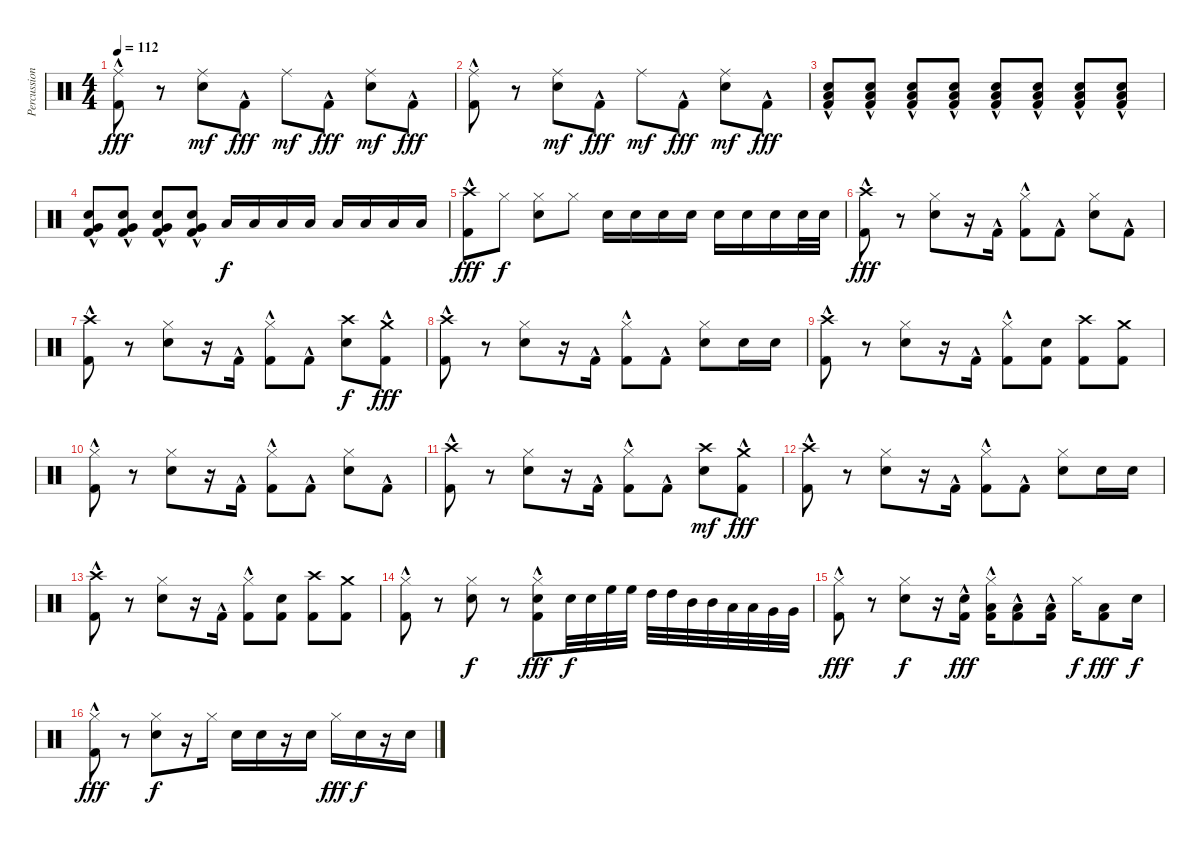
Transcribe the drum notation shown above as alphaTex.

\track ("Percussions" "Percussion") {instrument percussion}
\staff {score}
\articulation defaults
\ts (4 4)
\tempo 112
\clef neutral
\ks c
("Ride (middle)" "Kick (hit) 2"{hac}).8{dy fff} r.8 ("Ride (middle)" "Snare (hit) 2").8{dy mf} "Kick (hit) 2"{hac}.8{dy fff} "Ride (middle)".8{dy mf} "Kick (hit) 2"{hac}.8{dy fff} ("Ride (middle)" "Snare (hit) 2").8{dy mf} "Kick (hit) 2"{hac}.8{dy fff} |
("Ride (middle)" "Kick (hit) 2"{hac}).8 r.8 ("Ride (middle)" "Snare (hit) 2").8{dy mf} "Kick (hit) 2"{hac}.8{dy fff} "Ride (middle)".8{dy mf} "Kick (hit) 2"{hac}.8{dy fff} ("Ride (middle)" "Snare (hit) 2").8{dy mf} "Kick (hit) 2"{hac}.8{dy fff} |
("Snare (hit) 2" "Low Floor Tom (hit)" "Kick (hit) 2"{hac}).8 ("Snare (hit) 2" "Low Floor Tom (hit)" "Kick (hit) 2"{hac}).8 ("Snare (hit) 2" "Low Floor Tom (hit)" "Kick (hit) 2"{hac}).8 ("Snare (hit) 2" "Low Floor Tom (hit)" "Kick (hit) 2"{hac}).8 ("Snare (hit) 2" "Low Floor Tom (hit)" "Kick (hit) 2"{hac}).8 ("Snare (hit) 2" "Low Floor Tom (hit)" "Kick (hit) 2"{hac}).8 ("Snare (hit) 2" "Low Floor Tom (hit)" "Kick (hit) 2"{hac}).8 ("Snare (hit) 2" "Low Floor Tom (hit)" "Kick (hit) 2"{hac}).8 |
("Snare (hit) 2" "Very Low Tom (hit)" "Kick (hit) 2"{hac}).8 ("Snare (hit) 2" "Very Low Tom (hit)" "Kick (hit) 2"{hac}).8 ("Snare (hit) 2" "Very Low Tom (hit)" "Kick (hit) 2"{hac}).8 ("Snare (hit) 2" "Very Low Tom (hit)" "Kick (hit) 2"{hac}).8 "Low Floor Tom (hit)".16{dy f} "Low Floor Tom (hit)".16 "Low Floor Tom (hit)".16 "Low Floor Tom (hit)".16 "Low Floor Tom (hit)".16 "Low Floor Tom (hit)".16 "Low Floor Tom (hit)".16 "Low Floor Tom (hit)".16 |
("Crash high (hit)" "Kick (hit) 2"{hac}).8{dy fff} "Hi-Hat (closed)".8{dy f} ("Hi-Hat (closed)" "Snare (hit) 2").8 "Hi-Hat (closed)".8 "Snare (hit) 2".16 "Snare (hit) 2".16 "Snare (hit) 2".16 "Snare (hit) 2".16 "Snare (hit) 2".16 "Snare (hit) 2".16 "Snare (hit) 2".16 "Snare (hit) 2".32 "Snare (hit) 2".32 |
("Crash high (hit)" "Kick (hit) 2"{hac}).8{dy fff} r.8 ("Hi-Hat (closed)" "Snare (hit) 2").8 r.16 "Kick (hit) 2"{hac}.16 ("Hi-Hat (closed)" "Kick (hit) 2"{hac}).8 "Kick (hit) 2"{hac}.8 ("Hi-Hat (closed)" "Snare (hit) 2").8 "Kick (hit) 2"{hac}.8 |
("Crash high (hit)" "Kick (hit) 2"{hac}).8 r.8 ("Hi-Hat (closed)" "Snare (hit) 2").8 r.16 "Kick (hit) 2"{hac}.16 ("Hi-Hat (closed)" "Kick (hit) 2"{hac}).8 "Kick (hit) 2"{hac}.8 ("Crash high (hit)" "Snare (hit) 2").8{dy f} ("Crash medium (hit)" "Kick (hit) 2"{hac}).8{dy fff} |
("Crash high (hit)" "Kick (hit) 2"{hac}).8 r.8 ("Hi-Hat (closed)" "Snare (hit) 2").8 r.16 "Kick (hit) 2"{hac}.16 ("Hi-Hat (closed)" "Kick (hit) 2"{hac}).8 "Kick (hit) 2"{hac}.8 ("Hi-Hat (closed)" "Snare (hit) 2").8 "Snare (hit) 2".16 "Snare (hit) 2".16 |
("Crash high (hit)" "Kick (hit) 2"{hac}).8 r.8 ("Hi-Hat (closed)" "Snare (hit) 2").8 r.16 "Kick (hit) 2"{hac}.16 ("Hi-Hat (closed)" "Kick (hit) 2"{hac}).8 ("Snare (hit) 2" "Kick (hit) 2").8 ("Crash high (hit)" "Kick (hit) 2").8 ("Crash medium (hit)" "Kick (hit) 2").8 |
("Hi-Hat (closed)" "Kick (hit) 2"{hac}).8 r.8 ("Hi-Hat (closed)" "Snare (hit) 2").8 r.16 "Kick (hit) 2"{hac}.16 ("Hi-Hat (closed)" "Kick (hit) 2"{hac}).8 "Kick (hit) 2"{hac}.8 ("Hi-Hat (closed)" "Snare (hit) 2").8 "Kick (hit) 2"{hac}.8 |
("Crash high (hit)" "Kick (hit) 2"{hac}).8 r.8 ("Hi-Hat (closed)" "Snare (hit) 2").8 r.16 "Kick (hit) 2"{hac}.16 ("Hi-Hat (closed)" "Kick (hit) 2"{hac}).8 "Kick (hit) 2"{hac}.8 ("Crash high (hit)" "Snare (hit) 2").8{dy mf} ("Crash medium (hit)" "Kick (hit) 2"{hac}).8{dy fff} |
("Crash high (hit)" "Kick (hit) 2"{hac}).8 r.8 ("Hi-Hat (closed)" "Snare (hit) 2").8 r.16 "Kick (hit) 2"{hac}.16 ("Hi-Hat (closed)" "Kick (hit) 2"{hac}).8 "Kick (hit) 2"{hac}.8 ("Hi-Hat (closed)" "Snare (hit) 2").8 "Snare (hit) 2".16 "Snare (hit) 2".16 |
("Crash high (hit)" "Kick (hit) 2"{hac}).8 r.8 ("Hi-Hat (closed)" "Snare (hit) 2").8 r.16 "Kick (hit) 2"{hac}.16 ("Hi-Hat (closed)" "Kick (hit) 2"{hac}).8 ("Snare (hit) 2" "Kick (hit) 2").8 ("Crash high (hit)" "Kick (hit) 2").8 ("Crash medium (hit)" "Kick (hit) 2").8 |
("Hi-Hat (closed)" "Kick (hit) 2"{hac}).8 r.8 ("Hi-Hat (closed)" "Snare (hit) 2").8{dy f} r.8 ("Hi-Hat (closed)" "Snare (hit) 2" "Kick (hit) 2"{hac}).8{dy fff} "Snare (hit) 2".32{dy f} "Snare (hit) 2".32 "High Floor Tom (hit)".32 "High Floor Tom (hit)".32 "High Tom (hit)".32 "High Tom (hit)".32 "Mid Tom (hit)".32 "Mid Tom (hit)".32 "Low Tom (hit)".32 "Low Tom (hit)".32 "Very Low Tom (hit)".32 "Very Low Tom (hit)".32 |
("Hi-Hat (closed)" "Kick (hit) 2"{hac}).8{dy fff} r.8 ("Hi-Hat (closed)" "Snare (hit) 2").8{dy f} r.16 ("Snare (hit) 2" "Kick (hit) 2"{hac}).16{dy fff} ("Hi-Hat (closed)" "Low Floor Tom (hit)" "Kick (hit) 2"{hac}).16 ("Low Floor Tom (hit)" "Kick (hit) 2"{hac}).8 ("Low Floor Tom (hit)" "Kick (hit) 2"{hac}).16 "Hi-Hat (closed)".16{dy f} ("Low Floor Tom (hit)" "Kick (hit) 2").8{dy fff} "Snare (hit) 2".16{dy f} |
("Hi-Hat (closed)" "Kick (hit) 2"{hac}).8{dy fff} r.8 ("Hi-Hat (closed)" "Snare (hit) 2").8{dy f} r.16 "Hi-Hat (closed)".16 "Snare (hit) 2".16 "Snare (hit) 2".16 r.16 "Snare (hit) 2".16 "Hi-Hat (closed)".16{dy fff} "Snare (hit) 2".16{dy f} r.16 "Snare (hit) 2".16
